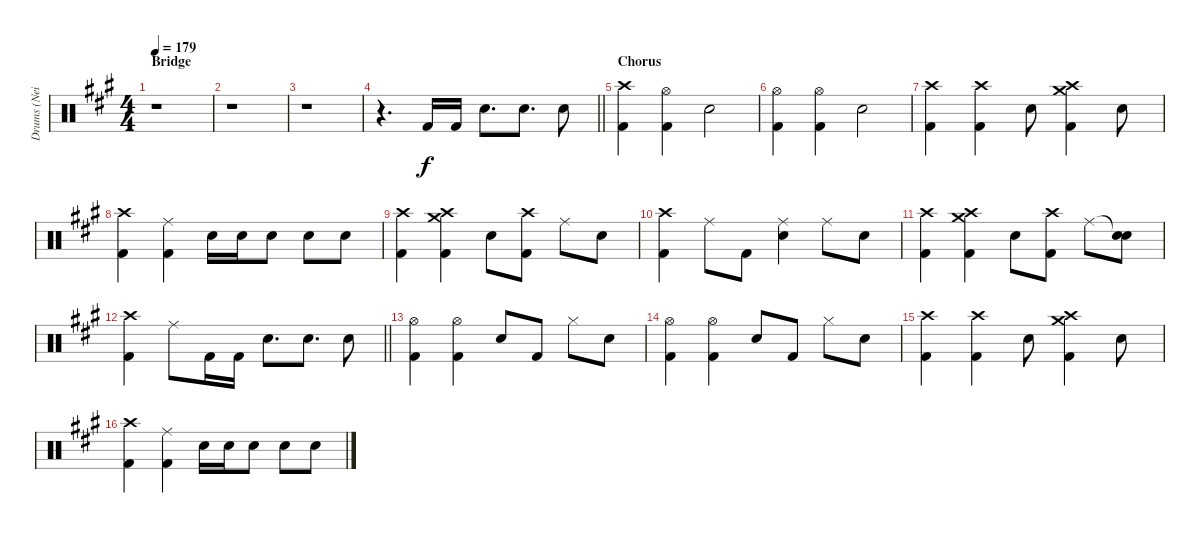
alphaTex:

\track ("Drums (Neil Sanderson)" "Drums (Nei") {instrument percussion}
\staff {score}
\articulation defaults
\ts (4 4)
\section ("" "Bridge")
\tempo 179
\clef neutral
\ks f#minor
r.1{dy f} |
r.1 |
r.1 |
\barLineRight lightlight
r.4{d} "Kick (hit) 2".16 "Kick (hit) 2".16 "Electric Snare (hit)".8{d} "Electric Snare (hit)".8{d} "Electric Snare (hit)".8 |
\section ("" "Chorus")
("Crash high (hit)" "Kick (hit) 2").4 ("Hi-Hat (open)" "Kick (hit) 2").4 "Electric Snare (hit)".2 |
("Hi-Hat (open)" "Kick (hit) 2").4 ("Hi-Hat (open)" "Kick (hit) 2").4 "Electric Snare (hit)".2 |
("Crash high (hit)" "Kick (hit) 2").4 ("Crash high (hit)" "Kick (hit) 2").4 "Electric Snare (hit)".8 ("Crash medium (hit)" "Crash high (hit)" "Kick (hit) 2").4 "Electric Snare (hit)".8 |
("Crash high (hit)" "Kick (hit) 2").4 ("Ride (middle)" "Kick (hit) 2").4 "Electric Snare (hit)".16 "Electric Snare (hit)".16 "Electric Snare (hit)".8 "Electric Snare (hit)".8 "Electric Snare (hit)".8 |
("Crash high (hit)" "Kick (hit) 2").4 ("Crash medium (hit)" "Crash high (hit)" "Kick (hit) 2").4 "Electric Snare (hit)".8 ("Crash high (hit)" "Kick (hit) 2").8 "Ride (middle)".8 "Electric Snare (hit)".8 |
("Crash high (hit)" "Kick (hit) 2").4 "Ride (middle)".8 "Kick (hit) 2".8 ("Ride (middle)" "Electric Snare (hit)").4 "Ride (middle)".8 "Electric Snare (hit)".8 |
("Crash high (hit)" "Kick (hit) 2").4 ("Crash medium (hit)" "Crash high (hit)" "Kick (hit) 2").4 "Electric Snare (hit)".8 ("Crash high (hit)" "Kick (hit) 2").8 "Ride (middle)".8 ("Snare (hit)"{t} "Electric Snare (hit)").8 |
\barLineRight lightlight
("Crash high (hit)" "Kick (hit) 2").4 "Ride (middle)".8 "Kick (hit) 2".16 "Kick (hit) 2".16 "Electric Snare (hit)".8{d} "Electric Snare (hit)".8{d} "Electric Snare (hit)".8 |
("Hi-Hat (open)" "Kick (hit) 2").4 ("Hi-Hat (open)" "Kick (hit) 2").4 "Electric Snare (hit)".8 "Kick (hit) 2".8 "Hi-Hat (closed)".8 "Electric Snare (hit)".8 |
("Hi-Hat (open)" "Kick (hit) 2").4 ("Hi-Hat (open)" "Kick (hit) 2").4 "Electric Snare (hit)".8 "Kick (hit) 2".8 "Hi-Hat (closed)".8 "Electric Snare (hit)".8 |
("Crash high (hit)" "Kick (hit) 2").4 ("Crash high (hit)" "Kick (hit) 2").4 "Electric Snare (hit)".8 ("Crash medium (hit)" "Crash high (hit)" "Kick (hit) 2").4 "Electric Snare (hit)".8 |
("Crash high (hit)" "Kick (hit) 2").4 ("Ride (middle)" "Kick (hit) 2").4 "Electric Snare (hit)".16 "Electric Snare (hit)".16 "Electric Snare (hit)".8 "Electric Snare (hit)".8 "Electric Snare (hit)".8
